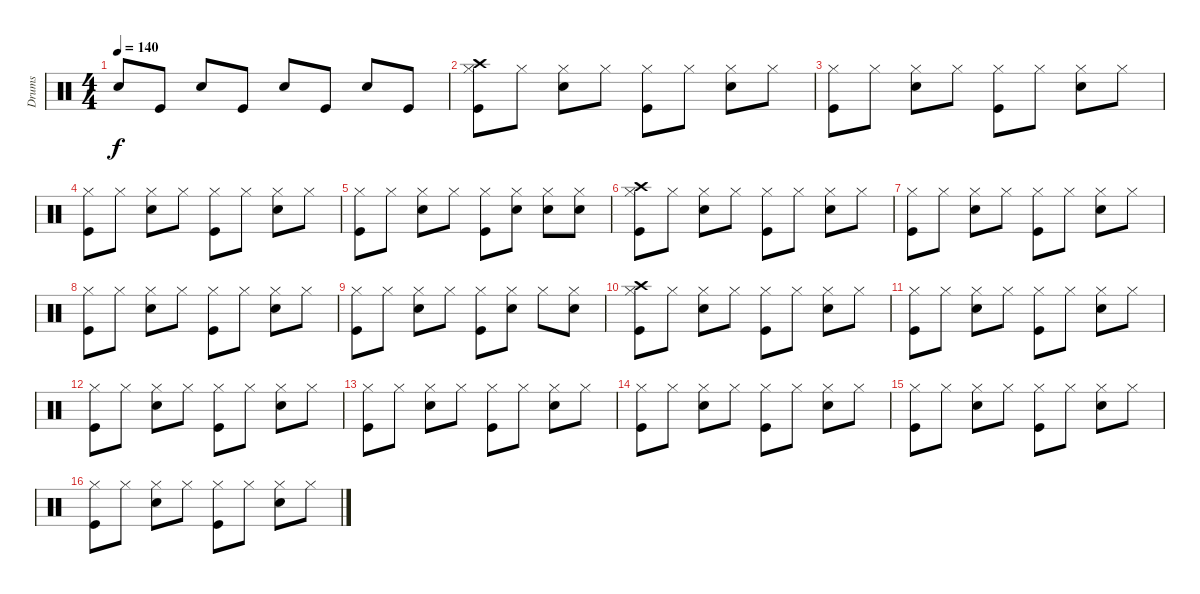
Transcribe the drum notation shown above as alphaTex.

\track ("Drums" "Drums") {instrument percussion}
\staff {score}
\articulation defaults
\ts (4 4)
\tempo 140
\clef neutral
\ks c "Snare (hit) 2".8{dy f} "Kick (hit)".8 "Snare (hit) 2".8 "Kick (hit)".8 "Snare (hit) 2".8 "Kick (hit)".8 "Snare (hit) 2".8 "Kick (hit)".8
|
("Kick (hit)" "Hi-Hat (closed)" "Crash high (hit)").8 "Hi-Hat (closed)".8 ("Snare (hit) 2" "Hi-Hat (closed)").8 "Hi-Hat (closed)".8 ("Kick (hit)" "Hi-Hat (closed)").8 "Hi-Hat (closed)".8 ("Snare (hit) 2" "Hi-Hat (closed)").8 "Hi-Hat (closed)".8 |
("Kick (hit)" "Hi-Hat (closed)").8 "Hi-Hat (closed)".8 ("Snare (hit) 2" "Hi-Hat (closed)").8 "Hi-Hat (closed)".8 ("Kick (hit)" "Hi-Hat (closed)").8 "Hi-Hat (closed)".8 ("Snare (hit) 2" "Hi-Hat (closed)").8 "Hi-Hat (closed)".8 |
("Kick (hit)" "Hi-Hat (closed)").8 "Hi-Hat (closed)".8 ("Snare (hit) 2" "Hi-Hat (closed)").8 "Hi-Hat (closed)".8 ("Kick (hit)" "Hi-Hat (closed)").8 "Hi-Hat (closed)".8 ("Snare (hit) 2" "Hi-Hat (closed)").8 "Hi-Hat (closed)".8 |
("Kick (hit)" "Hi-Hat (closed)").8 "Hi-Hat (closed)".8 ("Snare (hit) 2" "Hi-Hat (closed)").8 "Hi-Hat (closed)".8 ("Kick (hit)" "Hi-Hat (closed)").8 ("Snare (hit) 2" "Hi-Hat (closed)").8 ("Snare (hit) 2" "Hi-Hat (closed)").8 ("Snare (hit) 2" "Hi-Hat (closed)").8 |
("Kick (hit)" "Hi-Hat (closed)" "Crash high (hit)").8 "Hi-Hat (closed)".8 ("Snare (hit) 2" "Hi-Hat (closed)").8 "Hi-Hat (closed)".8 ("Kick (hit)" "Hi-Hat (closed)").8 "Hi-Hat (closed)".8 ("Snare (hit) 2" "Hi-Hat (closed)").8 "Hi-Hat (closed)".8 |
("Kick (hit)" "Hi-Hat (closed)").8 "Hi-Hat (closed)".8 ("Snare (hit) 2" "Hi-Hat (closed)").8 "Hi-Hat (closed)".8 ("Kick (hit)" "Hi-Hat (closed)").8 "Hi-Hat (closed)".8 ("Snare (hit) 2" "Hi-Hat (closed)").8 "Hi-Hat (closed)".8 |
("Kick (hit)" "Hi-Hat (closed)").8 "Hi-Hat (closed)".8 ("Snare (hit) 2" "Hi-Hat (closed)").8 "Hi-Hat (closed)".8 ("Kick (hit)" "Hi-Hat (closed)").8 "Hi-Hat (closed)".8 ("Snare (hit) 2" "Hi-Hat (closed)").8 "Hi-Hat (closed)".8 |
("Kick (hit)" "Hi-Hat (closed)").8 "Hi-Hat (closed)".8 ("Snare (hit) 2" "Hi-Hat (closed)").8 "Hi-Hat (closed)".8 ("Kick (hit)" "Hi-Hat (closed)").8 ("Snare (hit) 2" "Hi-Hat (closed)").8 "Hi-Hat (closed)".8 ("Snare (hit) 2" "Hi-Hat (closed)").8 |
("Kick (hit)" "Hi-Hat (closed)" "Crash high (hit)").8 "Hi-Hat (closed)".8 ("Snare (hit) 2" "Hi-Hat (closed)").8 "Hi-Hat (closed)".8 ("Kick (hit)" "Hi-Hat (closed)").8 "Hi-Hat (closed)".8 ("Snare (hit) 2" "Hi-Hat (closed)").8 "Hi-Hat (closed)".8 |
("Kick (hit)" "Hi-Hat (closed)").8 "Hi-Hat (closed)".8 ("Snare (hit) 2" "Hi-Hat (closed)").8 "Hi-Hat (closed)".8 ("Kick (hit)" "Hi-Hat (closed)").8 "Hi-Hat (closed)".8 ("Snare (hit) 2" "Hi-Hat (closed)").8 "Hi-Hat (closed)".8 |
("Kick (hit)" "Hi-Hat (closed)").8 "Hi-Hat (closed)".8 ("Snare (hit) 2" "Hi-Hat (closed)").8 "Hi-Hat (closed)".8 ("Kick (hit)" "Hi-Hat (closed)").8 "Hi-Hat (closed)".8 ("Snare (hit) 2" "Hi-Hat (closed)").8 "Hi-Hat (closed)".8 |
("Kick (hit)" "Hi-Hat (closed)").8 "Hi-Hat (closed)".8 ("Snare (hit) 2" "Hi-Hat (closed)").8 "Hi-Hat (closed)".8 ("Kick (hit)" "Hi-Hat (closed)").8 "Hi-Hat (closed)".8 ("Snare (hit) 2" "Hi-Hat (closed)").8 "Hi-Hat (closed)".8 |
("Kick (hit)" "Hi-Hat (closed)").8 "Hi-Hat (closed)".8 ("Snare (hit) 2" "Hi-Hat (closed)").8 "Hi-Hat (closed)".8 ("Kick (hit)" "Hi-Hat (closed)").8 "Hi-Hat (closed)".8 ("Snare (hit) 2" "Hi-Hat (closed)").8 "Hi-Hat (closed)".8 |
("Kick (hit)" "Hi-Hat (closed)").8 "Hi-Hat (closed)".8 ("Snare (hit) 2" "Hi-Hat (closed)").8 "Hi-Hat (closed)".8 ("Kick (hit)" "Hi-Hat (closed)").8 "Hi-Hat (closed)".8 ("Snare (hit) 2" "Hi-Hat (closed)").8 "Hi-Hat (closed)".8 |
("Kick (hit)" "Hi-Hat (closed)").8 "Hi-Hat (closed)".8 ("Snare (hit) 2" "Hi-Hat (closed)").8 "Hi-Hat (closed)".8 ("Kick (hit)" "Hi-Hat (closed)").8 "Hi-Hat (closed)".8 ("Snare (hit) 2" "Hi-Hat (closed)").8 "Hi-Hat (closed)".8
